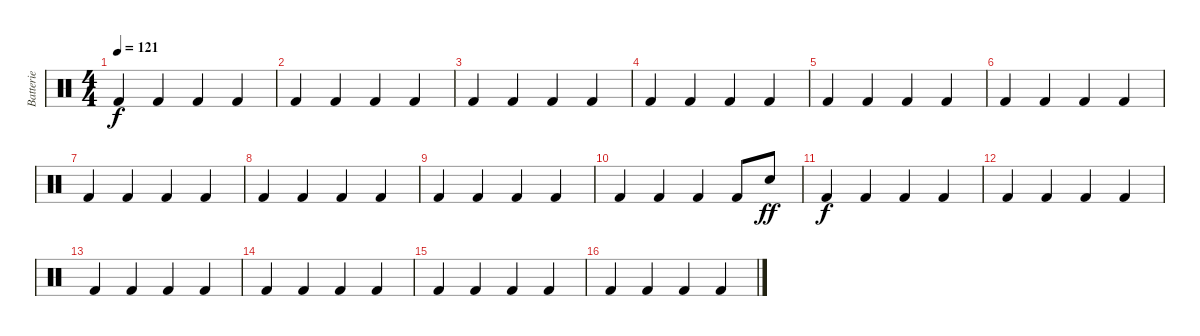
\track ("Batterie" "Batterie") {instrument percussion}
\staff {score}
\articulation defaults
\ts (4 4)
\tempo 121
\clef neutral
\ks c "Kick (hit) 2".4{dy f} "Kick (hit) 2".4 "Kick (hit) 2".4 "Kick (hit) 2".4
|
"Kick (hit) 2".4 "Kick (hit) 2".4 "Kick (hit) 2".4 "Kick (hit) 2".4 |
"Kick (hit) 2".4 "Kick (hit) 2".4 "Kick (hit) 2".4 "Kick (hit) 2".4 |
"Kick (hit) 2".4 "Kick (hit) 2".4 "Kick (hit) 2".4 "Kick (hit) 2".4 |
"Kick (hit) 2".4 "Kick (hit) 2".4 "Kick (hit) 2".4 "Kick (hit) 2".4 |
"Kick (hit) 2".4 "Kick (hit) 2".4 "Kick (hit) 2".4 "Kick (hit) 2".4 |
"Kick (hit) 2".4 "Kick (hit) 2".4 "Kick (hit) 2".4 "Kick (hit) 2".4 |
"Kick (hit) 2".4 "Kick (hit) 2".4 "Kick (hit) 2".4 "Kick (hit) 2".4 |
"Kick (hit) 2".4 "Kick (hit) 2".4 "Kick (hit) 2".4 "Kick (hit) 2".4 |
"Kick (hit) 2".4 "Kick (hit) 2".4 "Kick (hit) 2".4 "Kick (hit) 2".8 "Electric Snare (hit)".8{dy ff} |
"Kick (hit) 2".4{dy f} "Kick (hit) 2".4 "Kick (hit) 2".4 "Kick (hit) 2".4 |
"Kick (hit) 2".4 "Kick (hit) 2".4 "Kick (hit) 2".4 "Kick (hit) 2".4 |
"Kick (hit) 2".4 "Kick (hit) 2".4 "Kick (hit) 2".4 "Kick (hit) 2".4 |
"Kick (hit) 2".4 "Kick (hit) 2".4 "Kick (hit) 2".4 "Kick (hit) 2".4 |
"Kick (hit) 2".4 "Kick (hit) 2".4 "Kick (hit) 2".4 "Kick (hit) 2".4 |
"Kick (hit) 2".4 "Kick (hit) 2".4 "Kick (hit) 2".4 "Kick (hit) 2".4
